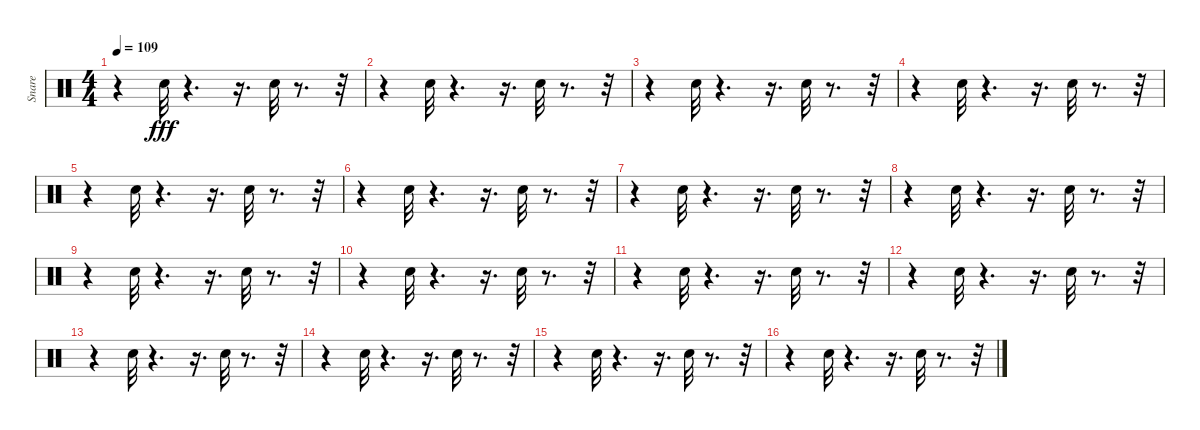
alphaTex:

\track ("Snare" "Snare") {instrument percussion}
\staff {score}
\articulation defaults
\ts (4 4)
\tempo 109
\clef neutral
\ks c
r.4{dy fff} "Snare (hit) 2".32 r.4{d} r.16{d} "Snare (hit) 2".32 r.8{d} r.32 |
r.4 "Snare (hit) 2".32 r.4{d} r.16{d} "Snare (hit) 2".32 r.8{d} r.32 |
r.4 "Snare (hit) 2".32 r.4{d} r.16{d} "Snare (hit) 2".32 r.8{d} r.32 |
r.4 "Snare (hit) 2".32 r.4{d} r.16{d} "Snare (hit) 2".32 r.8{d} r.32 |
r.4 "Snare (hit) 2".32 r.4{d} r.16{d} "Snare (hit) 2".32 r.8{d} r.32 |
r.4 "Snare (hit) 2".32 r.4{d} r.16{d} "Snare (hit) 2".32 r.8{d} r.32 |
r.4 "Snare (hit) 2".32 r.4{d} r.16{d} "Snare (hit) 2".32 r.8{d} r.32 |
r.4 "Snare (hit) 2".32 r.4{d} r.16{d} "Snare (hit) 2".32 r.8{d} r.32 |
r.4 "Snare (hit) 2".32 r.4{d} r.16{d} "Snare (hit) 2".32 r.8{d} r.32 |
r.4 "Snare (hit) 2".32 r.4{d} r.16{d} "Snare (hit) 2".32 r.8{d} r.32 |
r.4 "Snare (hit) 2".32 r.4{d} r.16{d} "Snare (hit) 2".32 r.8{d} r.32 |
r.4 "Snare (hit) 2".32 r.4{d} r.16{d} "Snare (hit) 2".32 r.8{d} r.32 |
r.4 "Snare (hit) 2".32 r.4{d} r.16{d} "Snare (hit) 2".32 r.8{d} r.32 |
r.4 "Snare (hit) 2".32 r.4{d} r.16{d} "Snare (hit) 2".32 r.8{d} r.32 |
r.4 "Snare (hit) 2".32 r.4{d} r.16{d} "Snare (hit) 2".32 r.8{d} r.32 |
r.4 "Snare (hit) 2".32 r.4{d} r.16{d} "Snare (hit) 2".32 r.8{d} r.32
